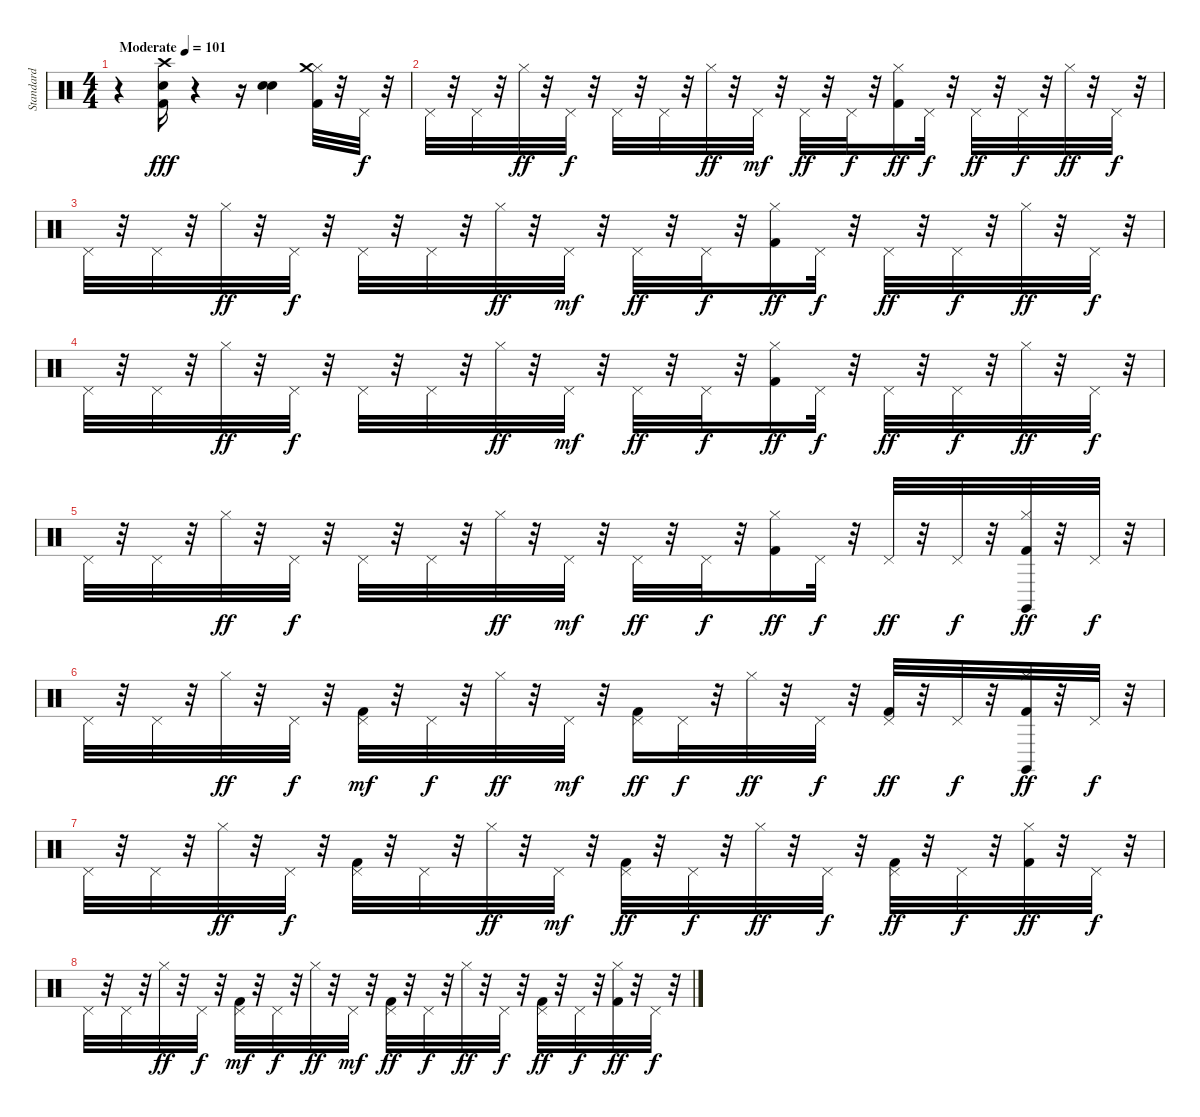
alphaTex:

\track (" Standard" " Standard") {instrument percussion}
\staff {score}
\articulation defaults
\ts (4 4)
\tempo (101 "Moderate")
\clef neutral
\ks c
r.4{dy fff} ("Hand Clap (hit)" "Kick (hit) 2" "Crash high (hit)").16 r.4 r.16 ("Electric Snare (hit)" "Electric Snare (hit)").4 ("Kick (hit) 2" "Hi-Hat (closed)" "Crash medium (hit)").32 r.32 "Pedal Hi-Hat (hit)".32{dy f} r.32 |
"Pedal Hi-Hat (hit)".32 r.32 "Pedal Hi-Hat (hit)".32 r.32 "Hi-Hat (closed)".32{dy ff} r.32 "Pedal Hi-Hat (hit)".32{dy f} r.32 "Pedal Hi-Hat (hit)".32 r.32 "Pedal Hi-Hat (hit)".32 r.32 "Hi-Hat (closed)".32{dy ff} r.32 "Pedal Hi-Hat (hit)".32{dy mf} r.32 "Pedal Hi-Hat (hit)".32{dy ff} r.32 "Pedal Hi-Hat (hit)".32{dy f} r.32 ("Hi-Hat (closed)" "Kick (hit) 2").16{dy ff} "Pedal Hi-Hat (hit)".32{dy f} r.32 "Pedal Hi-Hat (hit)".32{dy ff} r.32 "Pedal Hi-Hat (hit)".32{dy f} r.32 "Hi-Hat (closed)".32{dy ff} r.32 "Pedal Hi-Hat (hit)".32{dy f} r.32 |
"Pedal Hi-Hat (hit)".32 r.32 "Pedal Hi-Hat (hit)".32 r.32 "Hi-Hat (closed)".32{dy ff} r.32 "Pedal Hi-Hat (hit)".32{dy f} r.32 "Pedal Hi-Hat (hit)".32 r.32 "Pedal Hi-Hat (hit)".32 r.32 "Hi-Hat (closed)".32{dy ff} r.32 "Pedal Hi-Hat (hit)".32{dy mf} r.32 "Pedal Hi-Hat (hit)".32{dy ff} r.32 "Pedal Hi-Hat (hit)".32{dy f} r.32 ("Hi-Hat (closed)" "Kick (hit) 2").16{dy ff} "Pedal Hi-Hat (hit)".32{dy f} r.32 "Pedal Hi-Hat (hit)".32{dy ff} r.32 "Pedal Hi-Hat (hit)".32{dy f} r.32 "Hi-Hat (closed)".32{dy ff} r.32 "Pedal Hi-Hat (hit)".32{dy f} r.32 |
"Pedal Hi-Hat (hit)".32 r.32 "Pedal Hi-Hat (hit)".32 r.32 "Hi-Hat (closed)".32{dy ff} r.32 "Pedal Hi-Hat (hit)".32{dy f} r.32 "Pedal Hi-Hat (hit)".32 r.32 "Pedal Hi-Hat (hit)".32 r.32 "Hi-Hat (closed)".32{dy ff} r.32 "Pedal Hi-Hat (hit)".32{dy mf} r.32 "Pedal Hi-Hat (hit)".32{dy ff} r.32 "Pedal Hi-Hat (hit)".32{dy f} r.32 ("Hi-Hat (closed)" "Kick (hit) 2").16{dy ff} "Pedal Hi-Hat (hit)".32{dy f} r.32 "Pedal Hi-Hat (hit)".32{dy ff} r.32 "Pedal Hi-Hat (hit)".32{dy f} r.32 "Hi-Hat (closed)".32{dy ff} r.32 "Pedal Hi-Hat (hit)".32{dy f} r.32 |
"Pedal Hi-Hat (hit)".32 r.32 "Pedal Hi-Hat (hit)".32 r.32 "Hi-Hat (closed)".32{dy ff} r.32 "Pedal Hi-Hat (hit)".32{dy f} r.32 "Pedal Hi-Hat (hit)".32 r.32 "Pedal Hi-Hat (hit)".32 r.32 "Hi-Hat (closed)".32{dy ff} r.32 "Pedal Hi-Hat (hit)".32{dy mf} r.32 "Pedal Hi-Hat (hit)".32{dy ff} r.32 "Pedal Hi-Hat (hit)".32{dy f} r.32 ("Hi-Hat (closed)" "Kick (hit) 2").16{dy ff} "Pedal Hi-Hat (hit)".32{dy f} r.32 "Pedal Hi-Hat (hit)".32{dy ff} r.32 "Pedal Hi-Hat (hit)".32{dy f} r.32 ("Claves (hit)" "Kick (hit) 2" "Hi-Hat (closed)").32{dy ff} r.32 "Pedal Hi-Hat (hit)".32{dy f} r.32 |
"Pedal Hi-Hat (hit)".32 r.32 "Pedal Hi-Hat (hit)".32 r.32 "Hi-Hat (closed)".32{dy ff} r.32 "Pedal Hi-Hat (hit)".32{dy f} r.32 ("Kick (hit) 2" "Pedal Hi-Hat (hit)").32{dy mf} r.32 "Pedal Hi-Hat (hit)".32{dy f} r.32 "Hi-Hat (closed)".32{dy ff} r.32 "Pedal Hi-Hat (hit)".32{dy mf} r.32 ("Pedal Hi-Hat (hit)" "Kick (hit) 2").16{dy ff} "Pedal Hi-Hat (hit)".32{dy f} r.32 "Hi-Hat (closed)".32{dy ff} r.32 "Pedal Hi-Hat (hit)".32{dy f} r.32 ("Kick (hit) 2" "Pedal Hi-Hat (hit)").32{dy ff} r.32 "Pedal Hi-Hat (hit)".32{dy f} r.32 ("Kick (hit) 2" "Hi-Hat (closed)" "Claves (hit)").32{dy ff} r.32 "Pedal Hi-Hat (hit)".32{dy f} r.32 |
"Pedal Hi-Hat (hit)".32 r.32 "Pedal Hi-Hat (hit)".32 r.32 "Hi-Hat (closed)".32{dy ff} r.32 "Pedal Hi-Hat (hit)".32{dy f} r.32 ("Kick (hit) 2" "Pedal Hi-Hat (hit)").32 r.32 "Pedal Hi-Hat (hit)".32 r.32 "Hi-Hat (closed)".32{dy ff} r.32 "Pedal Hi-Hat (hit)".32{dy mf} r.32 ("Pedal Hi-Hat (hit)" "Kick (hit) 2").32{dy ff} r.32 "Pedal Hi-Hat (hit)".32{dy f} r.32 "Hi-Hat (closed)".32{dy ff} r.32 "Pedal Hi-Hat (hit)".32{dy f} r.32 ("Kick (hit) 2" "Pedal Hi-Hat (hit)").32{dy ff} r.32 "Pedal Hi-Hat (hit)".32{dy f} r.32 ("Kick (hit) 2" "Hi-Hat (closed)").32{dy ff} r.32 "Pedal Hi-Hat (hit)".32{dy f} r.32 |
"Pedal Hi-Hat (hit)".32 r.32 "Pedal Hi-Hat (hit)".32 r.32 "Hi-Hat (closed)".32{dy ff} r.32 "Pedal Hi-Hat (hit)".32{dy f} r.32 ("Kick (hit) 2" "Pedal Hi-Hat (hit)").32{dy mf} r.32 "Pedal Hi-Hat (hit)".32{dy f} r.32 "Hi-Hat (closed)".32{dy ff} r.32 "Pedal Hi-Hat (hit)".32{dy mf} r.32 ("Pedal Hi-Hat (hit)" "Kick (hit) 2").32{dy ff} r.32 "Pedal Hi-Hat (hit)".32{dy f} r.32 "Hi-Hat (closed)".32{dy ff} r.32 "Pedal Hi-Hat (hit)".32{dy f} r.32 ("Kick (hit) 2" "Pedal Hi-Hat (hit)").32{dy ff} r.32 "Pedal Hi-Hat (hit)".32{dy f} r.32 ("Kick (hit) 2" "Hi-Hat (closed)").32{dy ff} r.32 "Pedal Hi-Hat (hit)".32{dy f} r.32
